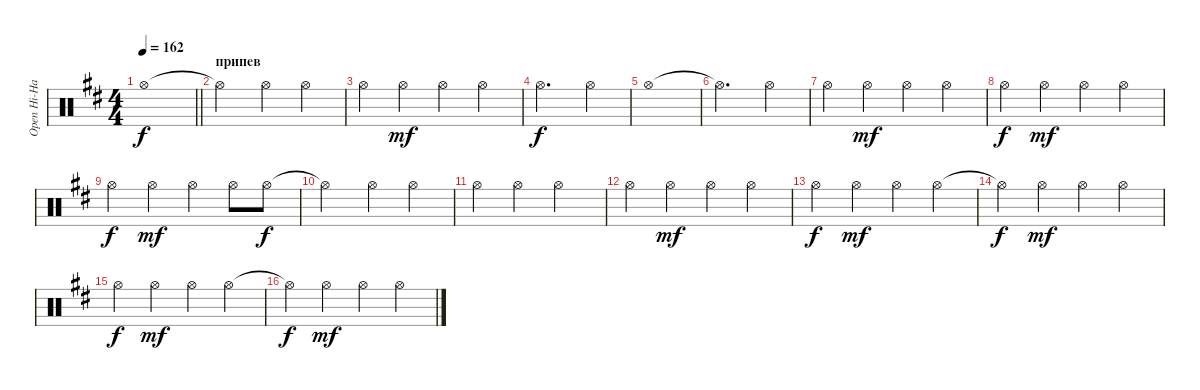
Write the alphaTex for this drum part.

\track ("Open Hi-Hat" "Open Hi-Ha") {instrument percussion}
\staff {score}
\articulation defaults
\ts (4 4)
\tempo 162
\clef neutral
\barLineRight lightlight
\ks bminor "Hi-Hat (open)".1{dy f}
|
\section ("" "припев")
"Hi-Hat (open)"{t}.2 "Hi-Hat (open)".4 "Hi-Hat (open)".4 |
"Hi-Hat (open)".4 "Hi-Hat (open)".4{dy mf} "Hi-Hat (open)".4 "Hi-Hat (open)".4 |
"Hi-Hat (open)".2{d dy f} "Hi-Hat (open)".4 |
"Hi-Hat (open)".1 |
"Hi-Hat (open)"{t}.2{d} "Hi-Hat (open)".4 |
"Hi-Hat (open)".4 "Hi-Hat (open)".4{dy mf} "Hi-Hat (open)".4 "Hi-Hat (open)".4 |
"Hi-Hat (open)".4{dy f} "Hi-Hat (open)".4{dy mf} "Hi-Hat (open)".4 "Hi-Hat (open)".4 |
"Hi-Hat (open)".4{dy f} "Hi-Hat (open)".4{dy mf} "Hi-Hat (open)".4 "Hi-Hat (open)".8 "Hi-Hat (open)".8{dy f} |
"Hi-Hat (open)"{t}.2 "Hi-Hat (open)".4 "Hi-Hat (open)".4 |
"Hi-Hat (open)".4 "Hi-Hat (open)".4 "Hi-Hat (open)".2 |
"Hi-Hat (open)".4 "Hi-Hat (open)".4{dy mf} "Hi-Hat (open)".4 "Hi-Hat (open)".4 |
"Hi-Hat (open)".4{dy f} "Hi-Hat (open)".4{dy mf} "Hi-Hat (open)".4 "Hi-Hat (open)".4 |
"Hi-Hat (open)"{t}.4{dy f} "Hi-Hat (open)".4{dy mf} "Hi-Hat (open)".4 "Hi-Hat (open)".4 |
"Hi-Hat (open)".4{dy f} "Hi-Hat (open)".4{dy mf} "Hi-Hat (open)".4 "Hi-Hat (open)".4 |
"Hi-Hat (open)"{t}.4{dy f} "Hi-Hat (open)".4{dy mf} "Hi-Hat (open)".4 "Hi-Hat (open)".4
